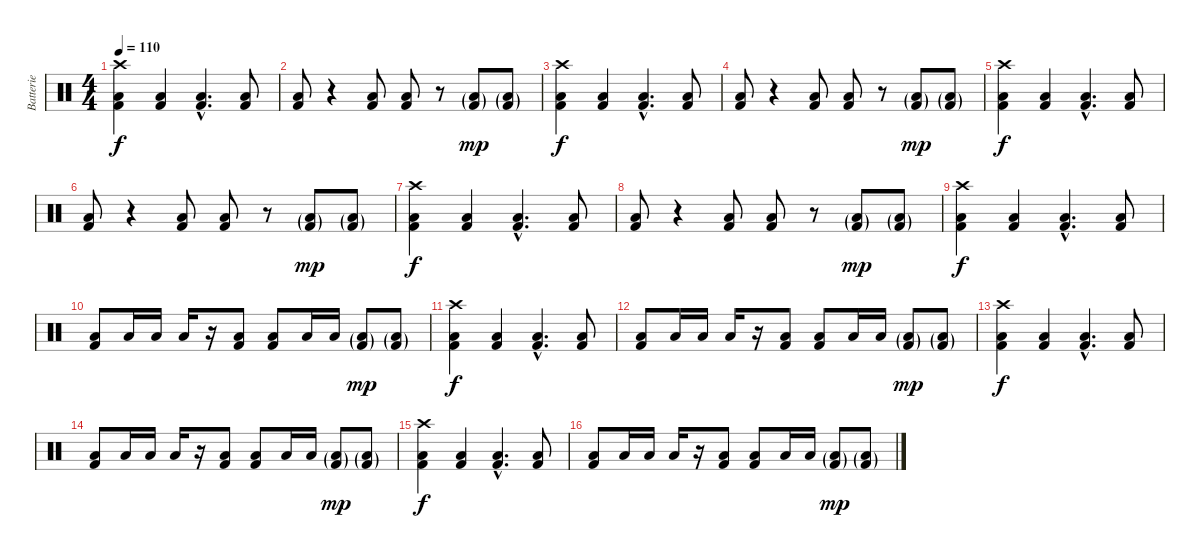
\track ("Batterie" "Batterie") {instrument percussion}
\staff {score}
\articulation defaults
\ts (4 4)
\section ("" "")
\tempo 110
\clef neutral
\ks c
("Crash high (hit)" "Low Tom (hit)" "Kick (hit) 2").4{dy f} ("Low Tom (hit)" "Kick (hit) 2").4 ("Low Tom (hit)"{hac} "Kick (hit) 2"{hac}).4{d} ("Low Tom (hit)" "Kick (hit) 2").8 |
("Low Tom (hit)" "Kick (hit) 2").8 r.4 ("Low Tom (hit)" "Kick (hit) 2").8 ("Low Tom (hit)" "Kick (hit) 2").8 r.8 ("Low Tom (hit)"{g} "Kick (hit) 2"{g}).8{dy mp} ("Low Tom (hit)"{g} "Kick (hit) 2"{g}).8 |
("Crash high (hit)" "Low Tom (hit)" "Kick (hit) 2").4{dy f} ("Low Tom (hit)" "Kick (hit) 2").4 ("Low Tom (hit)"{hac} "Kick (hit) 2"{hac}).4{d} ("Low Tom (hit)" "Kick (hit) 2").8 |
("Low Tom (hit)" "Kick (hit) 2").8 r.4 ("Low Tom (hit)" "Kick (hit) 2").8 ("Low Tom (hit)" "Kick (hit) 2").8 r.8 ("Low Tom (hit)"{g} "Kick (hit) 2"{g}).8{dy mp} ("Low Tom (hit)"{g} "Kick (hit) 2"{g}).8 |
("Crash high (hit)" "Low Tom (hit)" "Kick (hit) 2").4{dy f} ("Low Tom (hit)" "Kick (hit) 2").4 ("Low Tom (hit)"{hac} "Kick (hit) 2"{hac}).4{d} ("Low Tom (hit)" "Kick (hit) 2").8 |
("Low Tom (hit)" "Kick (hit) 2").8 r.4 ("Low Tom (hit)" "Kick (hit) 2").8 ("Low Tom (hit)" "Kick (hit) 2").8 r.8 ("Low Tom (hit)"{g} "Kick (hit) 2"{g}).8{dy mp} ("Low Tom (hit)"{g} "Kick (hit) 2"{g}).8 |
("Crash high (hit)" "Low Tom (hit)" "Kick (hit) 2").4{dy f} ("Low Tom (hit)" "Kick (hit) 2").4 ("Low Tom (hit)"{hac} "Kick (hit) 2"{hac}).4{d} ("Low Tom (hit)" "Kick (hit) 2").8 |
("Low Tom (hit)" "Kick (hit) 2").8 r.4 ("Low Tom (hit)" "Kick (hit) 2").8 ("Low Tom (hit)" "Kick (hit) 2").8 r.8 ("Low Tom (hit)"{g} "Kick (hit) 2"{g}).8{dy mp} ("Low Tom (hit)"{g} "Kick (hit) 2"{g}).8 |
\section ("" "")
("Crash high (hit)" "Low Tom (hit)" "Kick (hit) 2").4{dy f} ("Low Tom (hit)" "Kick (hit) 2").4 ("Low Tom (hit)"{hac} "Kick (hit) 2"{hac}).4{d} ("Low Tom (hit)" "Kick (hit) 2").8 |
("Low Tom (hit)" "Kick (hit) 2").8 "Low Tom (hit)".16 "Low Tom (hit)".16 "Low Tom (hit)".16 r.16 ("Low Tom (hit)" "Kick (hit) 2").8 ("Low Tom (hit)" "Kick (hit) 2").8 "Low Tom (hit)".16 "Low Tom (hit)".16 ("Low Tom (hit)"{g} "Kick (hit) 2"{g}).8{dy mp} ("Low Tom (hit)"{g} "Kick (hit) 2"{g}).8 |
("Crash high (hit)" "Low Tom (hit)" "Kick (hit) 2").4{dy f} ("Low Tom (hit)" "Kick (hit) 2").4 ("Low Tom (hit)"{hac} "Kick (hit) 2"{hac}).4{d} ("Low Tom (hit)" "Kick (hit) 2").8 |
("Low Tom (hit)" "Kick (hit) 2").8 "Low Tom (hit)".16 "Low Tom (hit)".16 "Low Tom (hit)".16 r.16 ("Low Tom (hit)" "Kick (hit) 2").8 ("Low Tom (hit)" "Kick (hit) 2").8 "Low Tom (hit)".16 "Low Tom (hit)".16 ("Low Tom (hit)"{g} "Kick (hit) 2"{g}).8{dy mp} ("Low Tom (hit)"{g} "Kick (hit) 2"{g}).8 |
("Crash high (hit)" "Low Tom (hit)" "Kick (hit) 2").4{dy f} ("Low Tom (hit)" "Kick (hit) 2").4 ("Low Tom (hit)"{hac} "Kick (hit) 2"{hac}).4{d} ("Low Tom (hit)" "Kick (hit) 2").8 |
("Low Tom (hit)" "Kick (hit) 2").8 "Low Tom (hit)".16 "Low Tom (hit)".16 "Low Tom (hit)".16 r.16 ("Low Tom (hit)" "Kick (hit) 2").8 ("Low Tom (hit)" "Kick (hit) 2").8 "Low Tom (hit)".16 "Low Tom (hit)".16 ("Low Tom (hit)"{g} "Kick (hit) 2"{g}).8{dy mp} ("Low Tom (hit)"{g} "Kick (hit) 2"{g}).8 |
("Crash high (hit)" "Low Tom (hit)" "Kick (hit) 2").4{dy f} ("Low Tom (hit)" "Kick (hit) 2").4 ("Low Tom (hit)"{hac} "Kick (hit) 2"{hac}).4{d} ("Low Tom (hit)" "Kick (hit) 2").8 |
("Low Tom (hit)" "Kick (hit) 2").8 "Low Tom (hit)".16 "Low Tom (hit)".16 "Low Tom (hit)".16 r.16 ("Low Tom (hit)" "Kick (hit) 2").8 ("Low Tom (hit)" "Kick (hit) 2").8 "Low Tom (hit)".16 "Low Tom (hit)".16 ("Low Tom (hit)"{g} "Kick (hit) 2"{g}).8{dy mp} ("Low Tom (hit)"{g} "Kick (hit) 2"{g}).8
